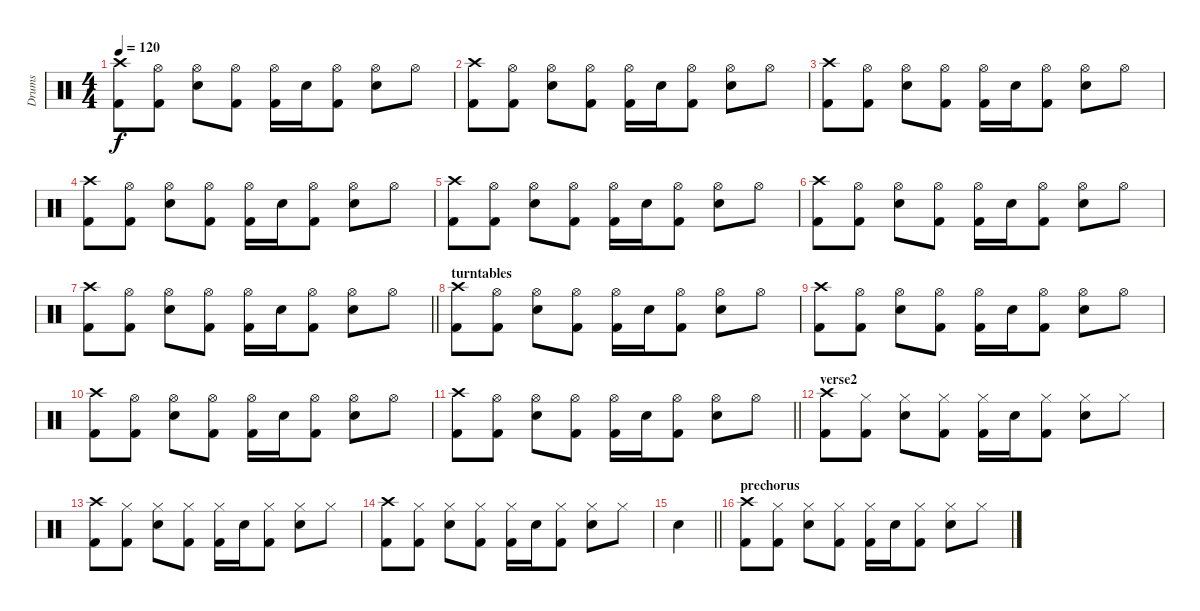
\track ("Drums" "Drums") {instrument percussion}
\staff {score}
\articulation defaults
\ts (4 4)
\tempo 120
\clef neutral
\ks c
("Crash high (hit)" "Kick (hit) 2").8{dy f} ("Hi-Hat (open)" "Kick (hit) 2").8 ("Hi-Hat (open)" "Snare (hit) 2").8 ("Hi-Hat (open)" "Kick (hit) 2").8 ("Hi-Hat (open)" "Kick (hit) 2").16 "Snare (hit) 2".16 ("Hi-Hat (open)" "Kick (hit) 2").8 ("Hi-Hat (open)" "Snare (hit) 2").8 "Hi-Hat (open)".8 |
("Crash high (hit)" "Kick (hit) 2").8 ("Hi-Hat (open)" "Kick (hit) 2").8 ("Hi-Hat (open)" "Snare (hit) 2").8 ("Hi-Hat (open)" "Kick (hit) 2").8 ("Hi-Hat (open)" "Kick (hit) 2").16 "Snare (hit) 2".16 ("Hi-Hat (open)" "Kick (hit) 2").8 ("Hi-Hat (open)" "Snare (hit) 2").8 "Hi-Hat (open)".8 |
("Crash high (hit)" "Kick (hit) 2").8 ("Hi-Hat (open)" "Kick (hit) 2").8 ("Hi-Hat (open)" "Snare (hit) 2").8 ("Hi-Hat (open)" "Kick (hit) 2").8 ("Hi-Hat (open)" "Kick (hit) 2").16 "Snare (hit) 2".16 ("Hi-Hat (open)" "Kick (hit) 2").8 ("Hi-Hat (open)" "Snare (hit) 2").8 "Hi-Hat (open)".8 |
("Crash high (hit)" "Kick (hit) 2").8 ("Hi-Hat (open)" "Kick (hit) 2").8 ("Hi-Hat (open)" "Snare (hit) 2").8 ("Hi-Hat (open)" "Kick (hit) 2").8 ("Hi-Hat (open)" "Kick (hit) 2").16 "Snare (hit) 2".16 ("Hi-Hat (open)" "Kick (hit) 2").8 ("Hi-Hat (open)" "Snare (hit) 2").8 "Hi-Hat (open)".8 |
("Crash high (hit)" "Kick (hit) 2").8 ("Hi-Hat (open)" "Kick (hit) 2").8 ("Hi-Hat (open)" "Snare (hit) 2").8 ("Hi-Hat (open)" "Kick (hit) 2").8 ("Hi-Hat (open)" "Kick (hit) 2").16 "Snare (hit) 2".16 ("Hi-Hat (open)" "Kick (hit) 2").8 ("Hi-Hat (open)" "Snare (hit) 2").8 "Hi-Hat (open)".8 |
("Crash high (hit)" "Kick (hit) 2").8 ("Hi-Hat (open)" "Kick (hit) 2").8 ("Hi-Hat (open)" "Snare (hit) 2").8 ("Hi-Hat (open)" "Kick (hit) 2").8 ("Hi-Hat (open)" "Kick (hit) 2").16 "Snare (hit) 2".16 ("Hi-Hat (open)" "Kick (hit) 2").8 ("Hi-Hat (open)" "Snare (hit) 2").8 "Hi-Hat (open)".8 |
\barLineRight lightlight
("Crash high (hit)" "Kick (hit) 2").8 ("Hi-Hat (open)" "Kick (hit) 2").8 ("Hi-Hat (open)" "Snare (hit) 2").8 ("Hi-Hat (open)" "Kick (hit) 2").8 ("Hi-Hat (open)" "Kick (hit) 2").16 "Snare (hit) 2".16 ("Hi-Hat (open)" "Kick (hit) 2").8 ("Hi-Hat (open)" "Snare (hit) 2").8 "Hi-Hat (open)".8 |
\section ("" "turntables")
("Crash high (hit)" "Kick (hit) 2").8 ("Hi-Hat (open)" "Kick (hit) 2").8 ("Hi-Hat (open)" "Snare (hit) 2").8 ("Hi-Hat (open)" "Kick (hit) 2").8 ("Hi-Hat (open)" "Kick (hit) 2").16 "Snare (hit) 2".16 ("Hi-Hat (open)" "Kick (hit) 2").8 ("Hi-Hat (open)" "Snare (hit) 2").8 "Hi-Hat (open)".8 |
("Crash high (hit)" "Kick (hit) 2").8 ("Hi-Hat (open)" "Kick (hit) 2").8 ("Hi-Hat (open)" "Snare (hit) 2").8 ("Hi-Hat (open)" "Kick (hit) 2").8 ("Hi-Hat (open)" "Kick (hit) 2").16 "Snare (hit) 2".16 ("Hi-Hat (open)" "Kick (hit) 2").8 ("Hi-Hat (open)" "Snare (hit) 2").8 "Hi-Hat (open)".8 |
("Crash high (hit)" "Kick (hit) 2").8 ("Hi-Hat (open)" "Kick (hit) 2").8 ("Hi-Hat (open)" "Snare (hit) 2").8 ("Hi-Hat (open)" "Kick (hit) 2").8 ("Hi-Hat (open)" "Kick (hit) 2").16 "Snare (hit) 2".16 ("Hi-Hat (open)" "Kick (hit) 2").8 ("Hi-Hat (open)" "Snare (hit) 2").8 "Hi-Hat (open)".8 |
\barLineRight lightlight
("Crash high (hit)" "Kick (hit) 2").8 ("Hi-Hat (open)" "Kick (hit) 2").8 ("Hi-Hat (open)" "Snare (hit) 2").8 ("Hi-Hat (open)" "Kick (hit) 2").8 ("Hi-Hat (open)" "Kick (hit) 2").16 "Snare (hit) 2".16 ("Hi-Hat (open)" "Kick (hit) 2").8 ("Hi-Hat (open)" "Snare (hit) 2").8 "Hi-Hat (open)".8 |
\section ("" "verse2")
("Crash high (hit)" "Kick (hit) 2").8 ("Hi-Hat (closed)" "Kick (hit) 2").8 ("Hi-Hat (closed)" "Snare (hit) 2").8 ("Hi-Hat (closed)" "Kick (hit) 2").8 ("Hi-Hat (closed)" "Kick (hit) 2").16 "Snare (hit) 2".16 ("Hi-Hat (closed)" "Kick (hit) 2").8 ("Hi-Hat (closed)" "Snare (hit) 2").8 "Hi-Hat (closed)".8 |
("Crash high (hit)" "Kick (hit) 2").8 ("Hi-Hat (closed)" "Kick (hit) 2").8 ("Hi-Hat (closed)" "Snare (hit) 2").8 ("Hi-Hat (closed)" "Kick (hit) 2").8 ("Hi-Hat (closed)" "Kick (hit) 2").16 "Snare (hit) 2".16 ("Hi-Hat (closed)" "Kick (hit) 2").8 ("Hi-Hat (closed)" "Snare (hit) 2").8 "Hi-Hat (closed)".8 |
("Crash high (hit)" "Kick (hit) 2").8 ("Hi-Hat (closed)" "Kick (hit) 2").8 ("Hi-Hat (closed)" "Snare (hit) 2").8 ("Hi-Hat (closed)" "Kick (hit) 2").8 ("Hi-Hat (closed)" "Kick (hit) 2").16 "Snare (hit) 2".16 ("Hi-Hat (closed)" "Kick (hit) 2").8 ("Hi-Hat (closed)" "Snare (hit) 2").8 "Hi-Hat (closed)".8 |
\barLineRight lightlight "Snare (hit) 2".4
|
\section ("" "prechorus")
("Crash high (hit)" "Kick (hit) 2").8 ("Hi-Hat (closed)" "Kick (hit) 2").8 ("Hi-Hat (closed)" "Snare (hit) 2").8 ("Hi-Hat (closed)" "Kick (hit) 2").8 ("Hi-Hat (closed)" "Kick (hit) 2").16 "Snare (hit) 2".16 ("Hi-Hat (closed)" "Kick (hit) 2").8 ("Hi-Hat (closed)" "Snare (hit) 2").8 "Hi-Hat (closed)".8
